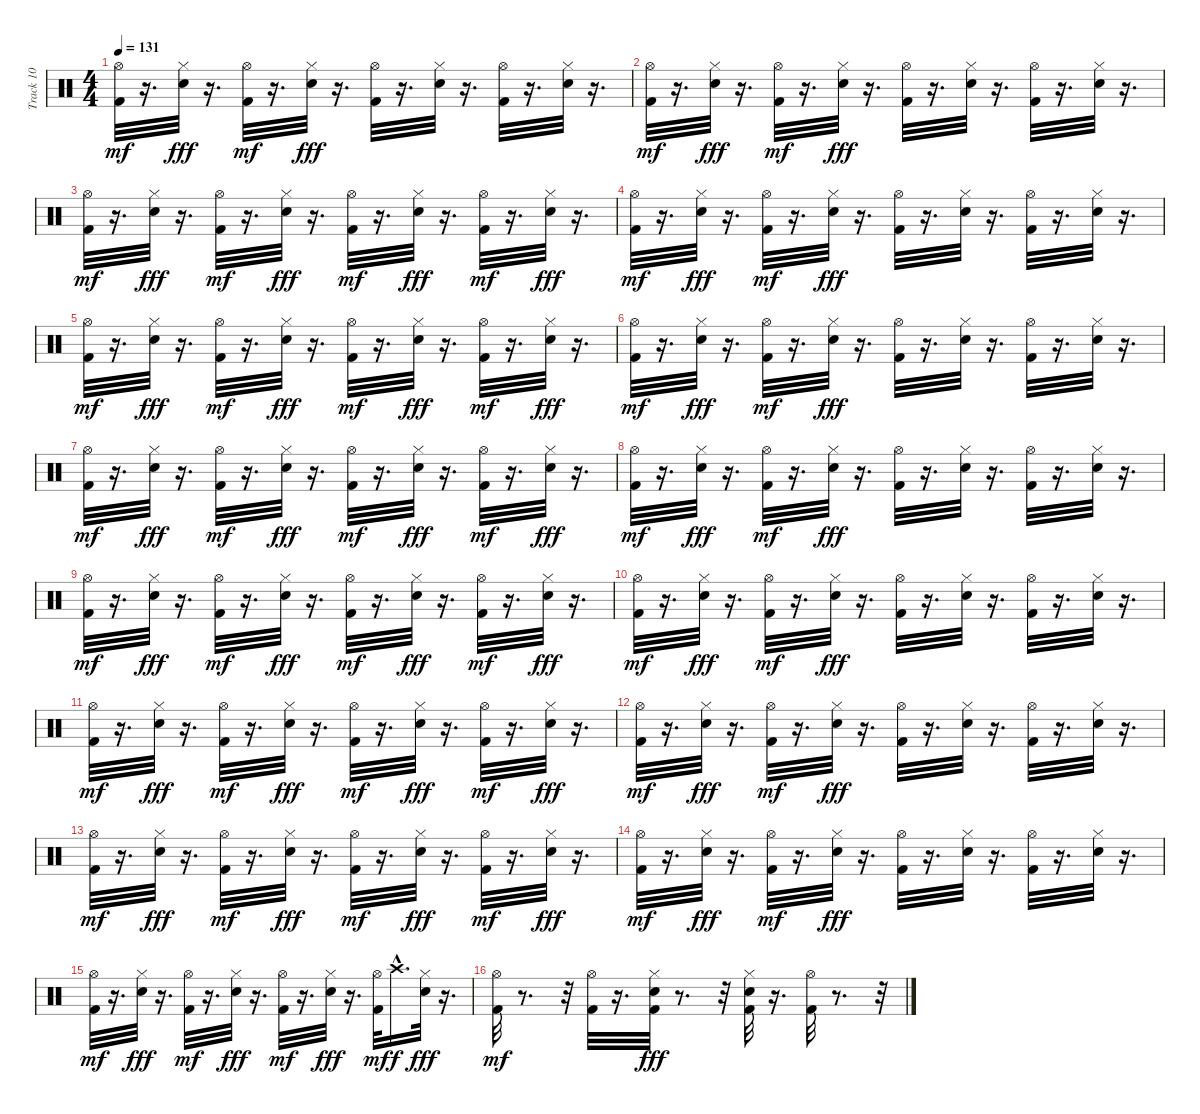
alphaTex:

\track ("Track 10" "Track 10") {instrument percussion}
\staff {score}
\articulation defaults
\ts (4 4)
\tempo 131
\clef neutral
\ks c
("Kick (hit) 2" "Hi-Hat (open)").32{dy mf} r.16{d} ("Snare (hit) 2" "Hi-Hat (closed)").32{dy fff} r.16{d} ("Kick (hit) 2" "Hi-Hat (open)").32{dy mf} r.16{d} ("Snare (hit) 2" "Hi-Hat (closed)").32{dy fff} r.16{d} ("Kick (hit) 2" "Hi-Hat (open)").32 r.16{d} ("Snare (hit) 2" "Hi-Hat (closed)").32 r.16{d} ("Kick (hit) 2" "Hi-Hat (open)").32 r.16{d} ("Snare (hit) 2" "Hi-Hat (closed)").32 r.16{d} |
("Kick (hit) 2" "Hi-Hat (open)").32{dy mf} r.16{d} ("Snare (hit) 2" "Hi-Hat (closed)").32{dy fff} r.16{d} ("Kick (hit) 2" "Hi-Hat (open)").32{dy mf} r.16{d} ("Snare (hit) 2" "Hi-Hat (closed)").32{dy fff} r.16{d} ("Kick (hit) 2" "Hi-Hat (open)").32 r.16{d} ("Snare (hit) 2" "Hi-Hat (closed)").32 r.16{d} ("Kick (hit) 2" "Hi-Hat (open)").32 r.16{d} ("Snare (hit) 2" "Hi-Hat (closed)").32 r.16{d} |
("Kick (hit) 2" "Hi-Hat (open)").32{dy mf} r.16{d} ("Snare (hit) 2" "Hi-Hat (closed)").32{dy fff} r.16{d} ("Kick (hit) 2" "Hi-Hat (open)").32{dy mf} r.16{d} ("Snare (hit) 2" "Hi-Hat (closed)").32{dy fff} r.16{d} ("Kick (hit) 2" "Hi-Hat (open)").32{dy mf} r.16{d} ("Snare (hit) 2" "Hi-Hat (closed)").32{dy fff} r.16{d} ("Kick (hit) 2" "Hi-Hat (open)").32{dy mf} r.16{d} ("Snare (hit) 2" "Hi-Hat (closed)").32{dy fff} r.16{d} |
("Kick (hit) 2" "Hi-Hat (open)").32{dy mf} r.16{d} ("Snare (hit) 2" "Hi-Hat (closed)").32{dy fff} r.16{d} ("Kick (hit) 2" "Hi-Hat (open)").32{dy mf} r.16{d} ("Snare (hit) 2" "Hi-Hat (closed)").32{dy fff} r.16{d} ("Kick (hit) 2" "Hi-Hat (open)").32 r.16{d} ("Snare (hit) 2" "Hi-Hat (closed)").32 r.16{d} ("Kick (hit) 2" "Hi-Hat (open)").32 r.16{d} ("Snare (hit) 2" "Hi-Hat (closed)").32 r.16{d} |
("Kick (hit) 2" "Hi-Hat (open)").32{dy mf} r.16{d} ("Snare (hit) 2" "Hi-Hat (closed)").32{dy fff} r.16{d} ("Kick (hit) 2" "Hi-Hat (open)").32{dy mf} r.16{d} ("Snare (hit) 2" "Hi-Hat (closed)").32{dy fff} r.16{d} ("Kick (hit) 2" "Hi-Hat (open)").32{dy mf} r.16{d} ("Snare (hit) 2" "Hi-Hat (closed)").32{dy fff} r.16{d} ("Kick (hit) 2" "Hi-Hat (open)").32{dy mf} r.16{d} ("Snare (hit) 2" "Hi-Hat (closed)").32{dy fff} r.16{d} |
("Kick (hit) 2" "Hi-Hat (open)").32{dy mf} r.16{d} ("Snare (hit) 2" "Hi-Hat (closed)").32{dy fff} r.16{d} ("Kick (hit) 2" "Hi-Hat (open)").32{dy mf} r.16{d} ("Snare (hit) 2" "Hi-Hat (closed)").32{dy fff} r.16{d} ("Kick (hit) 2" "Hi-Hat (open)").32 r.16{d} ("Snare (hit) 2" "Hi-Hat (closed)").32 r.16{d} ("Kick (hit) 2" "Hi-Hat (open)").32 r.16{d} ("Snare (hit) 2" "Hi-Hat (closed)").32 r.16{d} |
("Kick (hit) 2" "Hi-Hat (open)").32{dy mf} r.16{d} ("Snare (hit) 2" "Hi-Hat (closed)").32{dy fff} r.16{d} ("Kick (hit) 2" "Hi-Hat (open)").32{dy mf} r.16{d} ("Snare (hit) 2" "Hi-Hat (closed)").32{dy fff} r.16{d} ("Kick (hit) 2" "Hi-Hat (open)").32{dy mf} r.16{d} ("Snare (hit) 2" "Hi-Hat (closed)").32{dy fff} r.16{d} ("Kick (hit) 2" "Hi-Hat (open)").32{dy mf} r.16{d} ("Snare (hit) 2" "Hi-Hat (closed)").32{dy fff} r.16{d} |
("Kick (hit) 2" "Hi-Hat (open)").32{dy mf} r.16{d} ("Snare (hit) 2" "Hi-Hat (closed)").32{dy fff} r.16{d} ("Kick (hit) 2" "Hi-Hat (open)").32{dy mf} r.16{d} ("Snare (hit) 2" "Hi-Hat (closed)").32{dy fff} r.16{d} ("Kick (hit) 2" "Hi-Hat (open)").32 r.16{d} ("Snare (hit) 2" "Hi-Hat (closed)").32 r.16{d} ("Kick (hit) 2" "Hi-Hat (open)").32 r.16{d} ("Snare (hit) 2" "Hi-Hat (closed)").32 r.16{d} |
("Kick (hit) 2" "Hi-Hat (open)").32{dy mf} r.16{d} ("Snare (hit) 2" "Hi-Hat (closed)").32{dy fff} r.16{d} ("Kick (hit) 2" "Hi-Hat (open)").32{dy mf} r.16{d} ("Snare (hit) 2" "Hi-Hat (closed)").32{dy fff} r.16{d} ("Kick (hit) 2" "Hi-Hat (open)").32{dy mf} r.16{d} ("Snare (hit) 2" "Hi-Hat (closed)").32{dy fff} r.16{d} ("Kick (hit) 2" "Hi-Hat (open)").32{dy mf} r.16{d} ("Snare (hit) 2" "Hi-Hat (closed)").32{dy fff} r.16{d} |
("Kick (hit) 2" "Hi-Hat (open)").32{dy mf} r.16{d} ("Snare (hit) 2" "Hi-Hat (closed)").32{dy fff} r.16{d} ("Kick (hit) 2" "Hi-Hat (open)").32{dy mf} r.16{d} ("Snare (hit) 2" "Hi-Hat (closed)").32{dy fff} r.16{d} ("Kick (hit) 2" "Hi-Hat (open)").32 r.16{d} ("Snare (hit) 2" "Hi-Hat (closed)").32 r.16{d} ("Kick (hit) 2" "Hi-Hat (open)").32 r.16{d} ("Snare (hit) 2" "Hi-Hat (closed)").32 r.16{d} |
("Kick (hit) 2" "Hi-Hat (open)").32{dy mf} r.16{d} ("Snare (hit) 2" "Hi-Hat (closed)").32{dy fff} r.16{d} ("Kick (hit) 2" "Hi-Hat (open)").32{dy mf} r.16{d} ("Snare (hit) 2" "Hi-Hat (closed)").32{dy fff} r.16{d} ("Kick (hit) 2" "Hi-Hat (open)").32{dy mf} r.16{d} ("Snare (hit) 2" "Hi-Hat (closed)").32{dy fff} r.16{d} ("Kick (hit) 2" "Hi-Hat (open)").32{dy mf} r.16{d} ("Snare (hit) 2" "Hi-Hat (closed)").32{dy fff} r.16{d} |
("Kick (hit) 2" "Hi-Hat (open)").32{dy mf} r.16{d} ("Snare (hit) 2" "Hi-Hat (closed)").32{dy fff} r.16{d} ("Kick (hit) 2" "Hi-Hat (open)").32{dy mf} r.16{d} ("Snare (hit) 2" "Hi-Hat (closed)").32{dy fff} r.16{d} ("Kick (hit) 2" "Hi-Hat (open)").32 r.16{d} ("Snare (hit) 2" "Hi-Hat (closed)").32 r.16{d} ("Kick (hit) 2" "Hi-Hat (open)").32 r.16{d} ("Snare (hit) 2" "Hi-Hat (closed)").32 r.16{d} |
("Kick (hit) 2" "Hi-Hat (open)").32{dy mf} r.16{d} ("Snare (hit) 2" "Hi-Hat (closed)").32{dy fff} r.16{d} ("Kick (hit) 2" "Hi-Hat (open)").32{dy mf} r.16{d} ("Snare (hit) 2" "Hi-Hat (closed)").32{dy fff} r.16{d} ("Kick (hit) 2" "Hi-Hat (open)").32{dy mf} r.16{d} ("Snare (hit) 2" "Hi-Hat (closed)").32{dy fff} r.16{d} ("Kick (hit) 2" "Hi-Hat (open)").32{dy mf} r.16{d} ("Snare (hit) 2" "Hi-Hat (closed)").32{dy fff} r.16{d} |
("Kick (hit) 2" "Hi-Hat (open)").32{dy mf} r.16{d} ("Snare (hit) 2" "Hi-Hat (closed)").32{dy fff} r.16{d} ("Kick (hit) 2" "Hi-Hat (open)").32{dy mf} r.16{d} ("Snare (hit) 2" "Hi-Hat (closed)").32{dy fff} r.16{d} ("Kick (hit) 2" "Hi-Hat (open)").32 r.16{d} ("Snare (hit) 2" "Hi-Hat (closed)").32 r.16{d} ("Kick (hit) 2" "Hi-Hat (open)").32 r.16{d} ("Snare (hit) 2" "Hi-Hat (closed)").32 r.16{d} |
("Kick (hit) 2" "Hi-Hat (open)").32{dy mf} r.16{d} ("Snare (hit) 2" "Hi-Hat (closed)").32{dy fff} r.16{d} ("Kick (hit) 2" "Hi-Hat (open)").32{dy mf} r.16{d} ("Snare (hit) 2" "Hi-Hat (closed)").32{dy fff} r.16{d} ("Kick (hit) 2" "Hi-Hat (open)").32{dy mf} r.16{d} ("Snare (hit) 2" "Hi-Hat (closed)").32{dy fff} r.16{d} ("Kick (hit) 2" "Hi-Hat (open)").32{dy mf} "Crash high (hit)"{hac}.16{d dy f} ("Snare (hit) 2" "Hi-Hat (closed)").32{dy fff} r.16{d} |
("Kick (hit) 2" "Hi-Hat (open)").32{dy mf} r.8{d} r.32 ("Kick (hit) 2" "Hi-Hat (open)").32 r.16{d} ("Kick (hit) 2" "Snare (hit) 2" "Hi-Hat (closed)").32{dy fff} r.8{d} r.32 ("Kick (hit) 2" "Snare (hit) 2" "Hi-Hat (closed)").32 r.16{d} ("Kick (hit) 2" "Hi-Hat (open)").32 r.8{d} r.32
